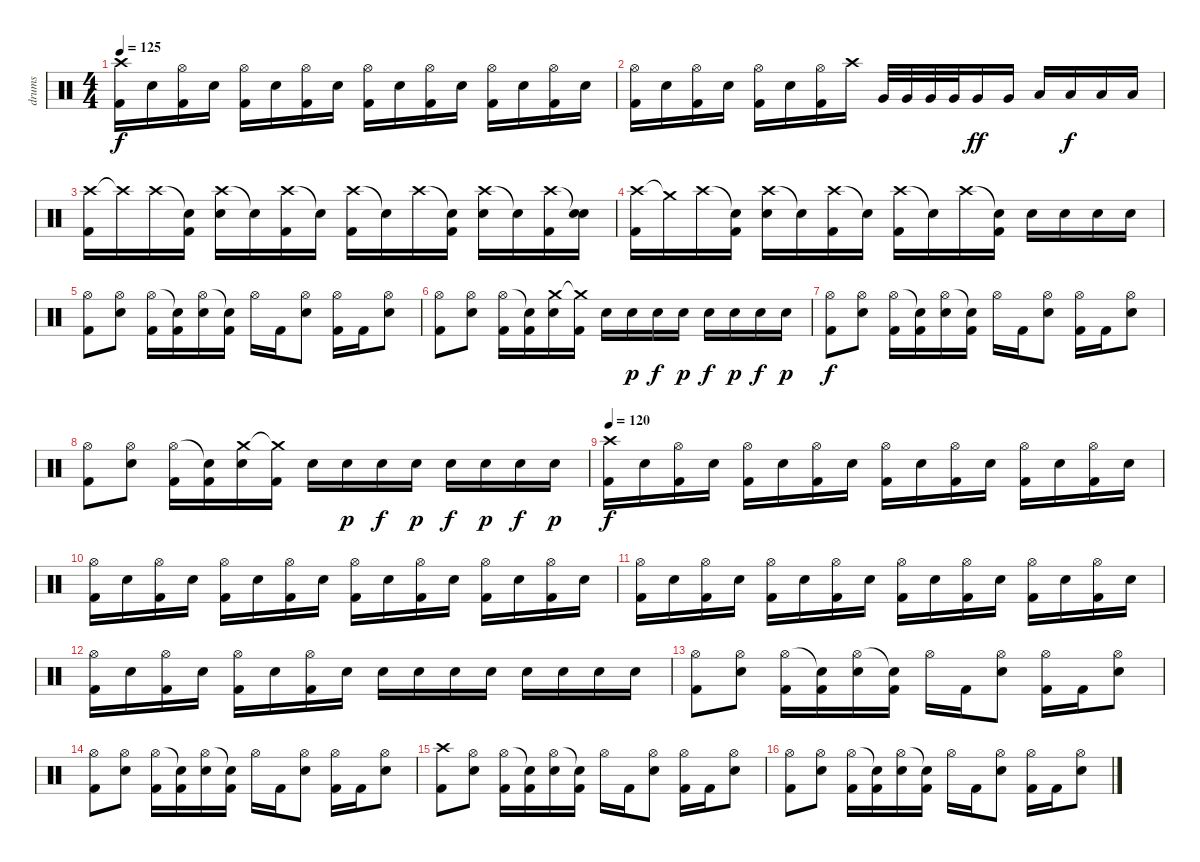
\track ("drums" "drums") {instrument percussion}
\staff {score}
\articulation defaults
\ts (4 4)
\tempo 125
\clef neutral
\ks c
("Crash high (hit)" "Kick (hit) 2").16{dy f} "Electric Snare (hit)".16 ("Hi-Hat (open)" "Kick (hit) 2").16 "Electric Snare (hit)".16 ("Hi-Hat (open)" "Kick (hit) 2").16 "Electric Snare (hit)".16 ("Hi-Hat (open)" "Kick (hit) 2").16 "Electric Snare (hit)".16 ("Hi-Hat (open)" "Kick (hit) 2").16 "Electric Snare (hit)".16 ("Hi-Hat (open)" "Kick (hit) 2").16 "Electric Snare (hit)".16 ("Hi-Hat (open)" "Kick (hit) 2").16 "Electric Snare (hit)".16 ("Hi-Hat (open)" "Kick (hit) 2").16 "Electric Snare (hit)".16 |
("Hi-Hat (open)" "Kick (hit) 2").16 "Electric Snare (hit)".16 ("Hi-Hat (open)" "Kick (hit) 2").16 "Electric Snare (hit)".16 ("Hi-Hat (open)" "Kick (hit) 2").16 "Electric Snare (hit)".16 ("Hi-Hat (open)" "Kick (hit) 2").16 "Crash high (hit)".16 "Very Low Tom (hit)".32 "Very Low Tom (hit)".32 "Very Low Tom (hit)".32 "Very Low Tom (hit)".32 "Very Low Tom (hit)".16{dy ff} "Very Low Tom (hit)".16 "Low Floor Tom (hit)".16 "Low Floor Tom (hit)".16{dy f} "Low Floor Tom (hit)".16 "Low Floor Tom (hit)".16 |
("Crash high (hit)" "Kick (hit) 2").16 "Crash high (hit)"{t}.16 "Crash high (hit)".16 ("Snare (hit)"{t} "Kick (hit) 2").16 ("Crash high (hit)" "Electric Snare (hit)").16 "Snare (hit)"{t}.16 ("Crash high (hit)" "Kick (hit) 2").16 "Snare (hit)"{t}.16 ("Crash high (hit)" "Kick (hit) 2").16 "Snare (hit)"{t}.16 "Crash high (hit)".16 ("Snare (hit)"{t} "Kick (hit) 2").16 ("Crash high (hit)" "Electric Snare (hit)").16 "Snare (hit)"{t}.16 ("Crash high (hit)" "Kick (hit) 2").16 ("Snare (hit)"{t} "Electric Snare (hit)").16 |
("Crash high (hit)" "Kick (hit) 2").16 "Crash medium (hit)"{t}.16 "Crash high (hit)".16 ("Snare (hit)"{t} "Kick (hit) 2").16 ("Crash high (hit)" "Electric Snare (hit)").16 "Snare (hit)"{t}.16 ("Crash high (hit)" "Kick (hit) 2").16 "Snare (hit)"{t}.16 ("Crash high (hit)" "Kick (hit) 2").16 "Snare (hit)"{t}.16 "Crash high (hit)".16 ("Snare (hit)"{t} "Kick (hit) 2").16 "Electric Snare (hit)".16 "Electric Snare (hit)".16 "Electric Snare (hit)".16 "Electric Snare (hit)".16 |
("Hi-Hat (open)" "Kick (hit) 2").8 ("Hi-Hat (open)" "Electric Snare (hit)").8 ("Hi-Hat (open)" "Kick (hit) 2").16 ("Snare (hit)"{t} "Kick (hit) 2").16 ("Hi-Hat (open)" "Electric Snare (hit)").16 ("Snare (hit)"{t} "Kick (hit) 2").16 "Hi-Hat (open)".16 "Kick (hit) 2".16 ("Hi-Hat (open)" "Electric Snare (hit)").8 ("Hi-Hat (open)" "Kick (hit) 2").16 "Kick (hit) 2".16 ("Hi-Hat (open)" "Electric Snare (hit)").8 |
("Hi-Hat (open)" "Kick (hit) 2").8 ("Hi-Hat (open)" "Electric Snare (hit)").8 ("Hi-Hat (open)" "Kick (hit) 2").16 ("Snare (hit)"{t} "Kick (hit) 2").16 ("Crash medium (hit)" "Electric Snare (hit)").16 ("Crash medium (hit)"{t} "Kick (hit) 2").16 "Electric Snare (hit)".16 "Electric Snare (hit)".16{dy p} "Electric Snare (hit)".16{dy f} "Electric Snare (hit)".16{dy p} "Electric Snare (hit)".16{dy f} "Electric Snare (hit)".16{dy p} "Electric Snare (hit)".16{dy f} "Electric Snare (hit)".16{dy p} |
("Hi-Hat (open)" "Kick (hit) 2").8{dy f} ("Hi-Hat (open)" "Electric Snare (hit)").8 ("Hi-Hat (open)" "Kick (hit) 2").16 ("Snare (hit)"{t} "Kick (hit) 2").16 ("Hi-Hat (open)" "Electric Snare (hit)").16 ("Snare (hit)"{t} "Kick (hit) 2").16 "Hi-Hat (open)".16 "Kick (hit) 2".16 ("Hi-Hat (open)" "Electric Snare (hit)").8 ("Hi-Hat (open)" "Kick (hit) 2").16 "Kick (hit) 2".16 ("Hi-Hat (open)" "Electric Snare (hit)").8 |
("Hi-Hat (open)" "Kick (hit) 2").8 ("Hi-Hat (open)" "Electric Snare (hit)").8 ("Hi-Hat (open)" "Kick (hit) 2").16 ("Snare (hit)"{t} "Kick (hit) 2").16 ("Crash medium (hit)" "Electric Snare (hit)").16 ("Crash medium (hit)"{t} "Kick (hit) 2").16 "Electric Snare (hit)".16 "Electric Snare (hit)".16{dy p} "Electric Snare (hit)".16{dy f} "Electric Snare (hit)".16{dy p} "Electric Snare (hit)".16{dy f} "Electric Snare (hit)".16{dy p} "Electric Snare (hit)".16{dy f} "Electric Snare (hit)".16{dy p} |
\tempo 120
("Crash high (hit)" "Kick (hit) 2").16{dy f volume 12} "Electric Snare (hit)".16 ("Hi-Hat (open)" "Kick (hit) 2").16 "Electric Snare (hit)".16 ("Hi-Hat (open)" "Kick (hit) 2").16 "Electric Snare (hit)".16 ("Hi-Hat (open)" "Kick (hit) 2").16 "Electric Snare (hit)".16 ("Hi-Hat (open)" "Kick (hit) 2").16 "Electric Snare (hit)".16 ("Hi-Hat (open)" "Kick (hit) 2").16 "Electric Snare (hit)".16 ("Hi-Hat (open)" "Kick (hit) 2").16 "Electric Snare (hit)".16 ("Hi-Hat (open)" "Kick (hit) 2").16 "Electric Snare (hit)".16 |
("Hi-Hat (open)" "Kick (hit) 2").16 "Electric Snare (hit)".16 ("Hi-Hat (open)" "Kick (hit) 2").16 "Electric Snare (hit)".16 ("Hi-Hat (open)" "Kick (hit) 2").16 "Electric Snare (hit)".16 ("Hi-Hat (open)" "Kick (hit) 2").16 "Electric Snare (hit)".16 ("Hi-Hat (open)" "Kick (hit) 2").16 "Electric Snare (hit)".16 ("Hi-Hat (open)" "Kick (hit) 2").16 "Electric Snare (hit)".16 ("Hi-Hat (open)" "Kick (hit) 2").16 "Electric Snare (hit)".16 ("Hi-Hat (open)" "Kick (hit) 2").16 "Electric Snare (hit)".16 |
("Hi-Hat (open)" "Kick (hit) 2").16 "Electric Snare (hit)".16 ("Hi-Hat (open)" "Kick (hit) 2").16 "Electric Snare (hit)".16 ("Hi-Hat (open)" "Kick (hit) 2").16 "Electric Snare (hit)".16 ("Hi-Hat (open)" "Kick (hit) 2").16 "Electric Snare (hit)".16 ("Hi-Hat (open)" "Kick (hit) 2").16 "Electric Snare (hit)".16 ("Hi-Hat (open)" "Kick (hit) 2").16 "Electric Snare (hit)".16 ("Hi-Hat (open)" "Kick (hit) 2").16 "Electric Snare (hit)".16 ("Hi-Hat (open)" "Kick (hit) 2").16 "Electric Snare (hit)".16 |
("Hi-Hat (open)" "Kick (hit) 2").16 "Electric Snare (hit)".16 ("Hi-Hat (open)" "Kick (hit) 2").16 "Electric Snare (hit)".16 ("Hi-Hat (open)" "Kick (hit) 2").16 "Electric Snare (hit)".16 ("Hi-Hat (open)" "Kick (hit) 2").16 "Electric Snare (hit)".16 "Electric Snare (hit)".16 "Electric Snare (hit)".16 "Electric Snare (hit)".16 "Electric Snare (hit)".16 "Electric Snare (hit)".16 "Electric Snare (hit)".16 "Electric Snare (hit)".16 "Electric Snare (hit)".16 |
("Hi-Hat (open)" "Kick (hit) 2").8 ("Hi-Hat (open)" "Electric Snare (hit)").8 ("Hi-Hat (open)" "Kick (hit) 2").16 ("Snare (hit)"{t} "Kick (hit) 2").16 ("Hi-Hat (open)" "Electric Snare (hit)").16 ("Snare (hit)"{t} "Kick (hit) 2").16 "Hi-Hat (open)".16 "Kick (hit) 2".16 ("Hi-Hat (open)" "Electric Snare (hit)").8 ("Hi-Hat (open)" "Kick (hit) 2").16 "Kick (hit) 2".16 ("Hi-Hat (open)" "Electric Snare (hit)").8 |
("Hi-Hat (open)" "Kick (hit) 2").8 ("Hi-Hat (open)" "Electric Snare (hit)").8 ("Hi-Hat (open)" "Kick (hit) 2").16 ("Snare (hit)"{t} "Kick (hit) 2").16 ("Hi-Hat (open)" "Electric Snare (hit)").16 ("Snare (hit)"{t} "Kick (hit) 2").16 "Hi-Hat (open)".16 "Kick (hit) 2".16 ("Hi-Hat (open)" "Electric Snare (hit)").8 ("Hi-Hat (open)" "Kick (hit) 2").16 "Kick (hit) 2".16 ("Hi-Hat (open)" "Electric Snare (hit)").8 |
("Crash high (hit)" "Kick (hit) 2").8 ("Hi-Hat (open)" "Electric Snare (hit)").8 ("Hi-Hat (open)" "Kick (hit) 2").16 ("Snare (hit)"{t} "Kick (hit) 2").16 ("Hi-Hat (open)" "Electric Snare (hit)").16 ("Snare (hit)"{t} "Kick (hit) 2").16 "Hi-Hat (open)".16 "Kick (hit) 2".16 ("Hi-Hat (open)" "Electric Snare (hit)").8 ("Hi-Hat (open)" "Kick (hit) 2").16 "Kick (hit) 2".16 ("Hi-Hat (open)" "Electric Snare (hit)").8 |
("Hi-Hat (open)" "Kick (hit) 2").8 ("Hi-Hat (open)" "Electric Snare (hit)").8 ("Hi-Hat (open)" "Kick (hit) 2").16 ("Snare (hit)"{t} "Kick (hit) 2").16 ("Hi-Hat (open)" "Electric Snare (hit)").16 ("Snare (hit)"{t} "Kick (hit) 2").16 "Hi-Hat (open)".16 "Kick (hit) 2".16 ("Hi-Hat (open)" "Electric Snare (hit)").8 ("Hi-Hat (open)" "Kick (hit) 2").16 "Kick (hit) 2".16 ("Hi-Hat (open)" "Electric Snare (hit)").8
